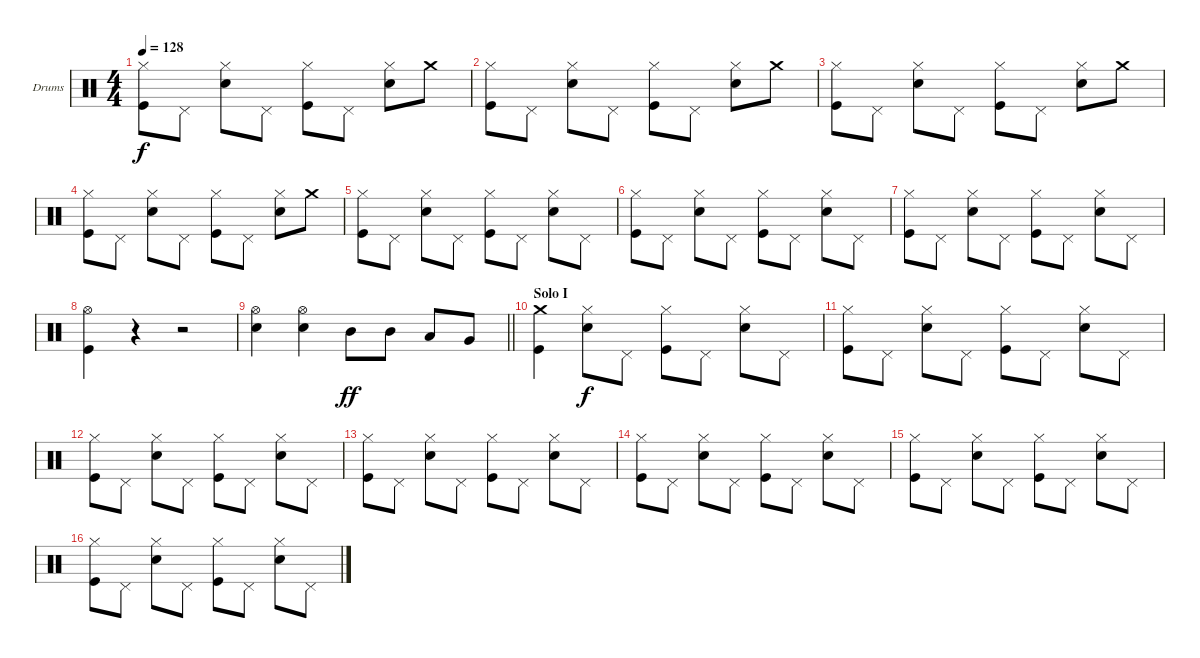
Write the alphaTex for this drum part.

\bracketExtendMode groupsimilarinstruments
\firstSystemTrackNameOrientation horizontal
\otherSystemsTrackNameOrientation horizontal
\track ("Drumkit" "Drums") {instrument percussion}
\staff {score}
\articulation defaults
\ts (4 4)
\tempo 128
\clef neutral
\ks c
("Hi-Hat (closed)" "Kick (hit)").8{dy f} "Pedal Hi-Hat (hit)".8 ("Hi-Hat (closed)" "Snare (hit) 2").8 "Pedal Hi-Hat (hit)".8 ("Hi-Hat (closed)" "Kick (hit)").8 "Pedal Hi-Hat (hit)".8 ("Hi-Hat (closed)" "Snare (hit) 2").8 "Crash medium (hit)".8 |
("Hi-Hat (closed)" "Kick (hit)").8 "Pedal Hi-Hat (hit)".8 ("Hi-Hat (closed)" "Snare (hit) 2").8 "Pedal Hi-Hat (hit)".8 ("Hi-Hat (closed)" "Kick (hit)").8 "Pedal Hi-Hat (hit)".8 ("Hi-Hat (closed)" "Snare (hit) 2").8 "Crash medium (hit)".8 |
("Hi-Hat (closed)" "Kick (hit)").8 "Pedal Hi-Hat (hit)".8 ("Hi-Hat (closed)" "Snare (hit) 2").8 "Pedal Hi-Hat (hit)".8 ("Hi-Hat (closed)" "Kick (hit)").8 "Pedal Hi-Hat (hit)".8 ("Hi-Hat (closed)" "Snare (hit) 2").8 "Crash medium (hit)".8 |
("Hi-Hat (closed)" "Kick (hit)").8 "Pedal Hi-Hat (hit)".8 ("Hi-Hat (closed)" "Snare (hit) 2").8 "Pedal Hi-Hat (hit)".8 ("Hi-Hat (closed)" "Kick (hit)").8 "Pedal Hi-Hat (hit)".8 ("Hi-Hat (closed)" "Snare (hit) 2").8 "Crash medium (hit)".8 |
("Hi-Hat (closed)" "Kick (hit)").8 "Pedal Hi-Hat (hit)".8 ("Hi-Hat (closed)" "Snare (hit) 2").8 "Pedal Hi-Hat (hit)".8 ("Hi-Hat (closed)" "Kick (hit)").8 "Pedal Hi-Hat (hit)".8 ("Hi-Hat (closed)" "Snare (hit) 2").8 "Pedal Hi-Hat (hit)".8 |
("Hi-Hat (closed)" "Kick (hit)").8 "Pedal Hi-Hat (hit)".8 ("Hi-Hat (closed)" "Snare (hit) 2").8 "Pedal Hi-Hat (hit)".8 ("Hi-Hat (closed)" "Kick (hit)").8 "Pedal Hi-Hat (hit)".8 ("Hi-Hat (closed)" "Snare (hit) 2").8 "Pedal Hi-Hat (hit)".8 |
("Hi-Hat (closed)" "Kick (hit)").8 "Pedal Hi-Hat (hit)".8 ("Hi-Hat (closed)" "Snare (hit) 2").8 "Pedal Hi-Hat (hit)".8 ("Hi-Hat (closed)" "Kick (hit)").8 "Pedal Hi-Hat (hit)".8 ("Hi-Hat (closed)" "Snare (hit) 2").8 "Pedal Hi-Hat (hit)".8 |
("Hi-Hat (open)" "Kick (hit)").4 r.4 r.2 |
\barLineRight lightlight
("Hi-Hat (open)" "Snare (hit) 2").4 ("Hi-Hat (open)" "Snare (hit) 2").4 "Mid Tom (hit)".8{dy ff} "Mid Tom (hit)".8 "Low Tom (hit)".8 "Very Low Tom (hit)".8 |
\section ("" "Solo I")
("Crash medium (hit)" "Kick (hit)").4 ("Hi-Hat (closed)" "Snare (hit) 2").8{dy f} "Pedal Hi-Hat (hit)".8 ("Hi-Hat (closed)" "Kick (hit)").8 "Pedal Hi-Hat (hit)".8 ("Hi-Hat (closed)" "Snare (hit) 2").8 "Pedal Hi-Hat (hit)".8 |
("Hi-Hat (closed)" "Kick (hit)").8 "Pedal Hi-Hat (hit)".8 ("Hi-Hat (closed)" "Snare (hit) 2").8 "Pedal Hi-Hat (hit)".8 ("Hi-Hat (closed)" "Kick (hit)").8 "Pedal Hi-Hat (hit)".8 ("Hi-Hat (closed)" "Snare (hit) 2").8 "Pedal Hi-Hat (hit)".8 |
("Hi-Hat (closed)" "Kick (hit)").8 "Pedal Hi-Hat (hit)".8 ("Hi-Hat (closed)" "Snare (hit) 2").8 "Pedal Hi-Hat (hit)".8 ("Hi-Hat (closed)" "Kick (hit)").8 "Pedal Hi-Hat (hit)".8 ("Hi-Hat (closed)" "Snare (hit) 2").8 "Pedal Hi-Hat (hit)".8 |
("Hi-Hat (closed)" "Kick (hit)").8 "Pedal Hi-Hat (hit)".8 ("Hi-Hat (closed)" "Snare (hit) 2").8 "Pedal Hi-Hat (hit)".8 ("Hi-Hat (closed)" "Kick (hit)").8 "Pedal Hi-Hat (hit)".8 ("Hi-Hat (closed)" "Snare (hit) 2").8 "Pedal Hi-Hat (hit)".8 |
("Hi-Hat (closed)" "Kick (hit)").8 "Pedal Hi-Hat (hit)".8 ("Hi-Hat (closed)" "Snare (hit) 2").8 "Pedal Hi-Hat (hit)".8 ("Hi-Hat (closed)" "Kick (hit)").8 "Pedal Hi-Hat (hit)".8 ("Hi-Hat (closed)" "Snare (hit) 2").8 "Pedal Hi-Hat (hit)".8 |
("Hi-Hat (closed)" "Kick (hit)").8 "Pedal Hi-Hat (hit)".8 ("Hi-Hat (closed)" "Snare (hit) 2").8 "Pedal Hi-Hat (hit)".8 ("Hi-Hat (closed)" "Kick (hit)").8 "Pedal Hi-Hat (hit)".8 ("Hi-Hat (closed)" "Snare (hit) 2").8 "Pedal Hi-Hat (hit)".8 |
("Hi-Hat (closed)" "Kick (hit)").8 "Pedal Hi-Hat (hit)".8 ("Hi-Hat (closed)" "Snare (hit) 2").8 "Pedal Hi-Hat (hit)".8 ("Hi-Hat (closed)" "Kick (hit)").8 "Pedal Hi-Hat (hit)".8 ("Hi-Hat (closed)" "Snare (hit) 2").8 "Pedal Hi-Hat (hit)".8
